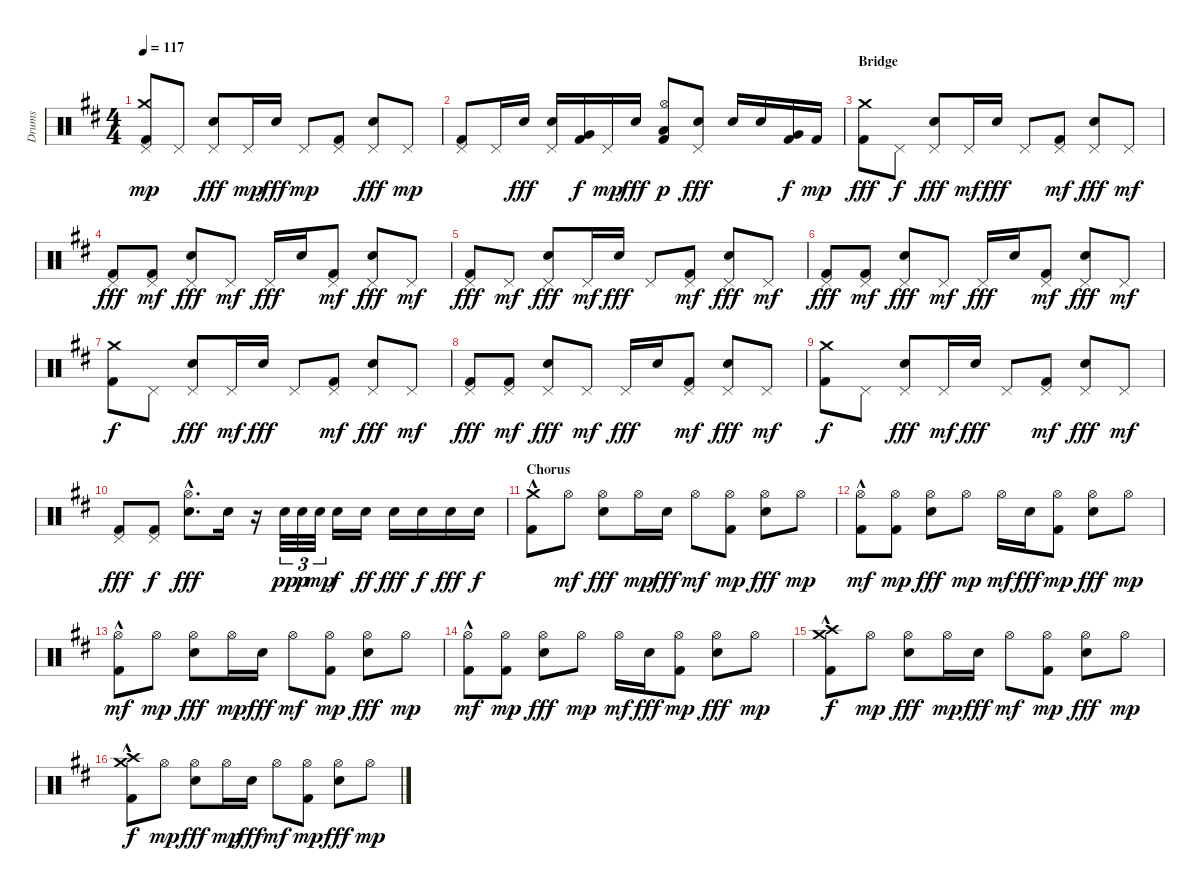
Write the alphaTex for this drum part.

\track ("Drums" "Drums") {instrument percussion}
\staff {score}
\articulation defaults
\ts (4 4)
\tempo 117
\clef neutral
\ks d
("Pedal Hi-Hat (hit)" "Crash medium (hit)" "Kick (hit) 2").8{dy mp} "Pedal Hi-Hat (hit)".8 ("Pedal Hi-Hat (hit)" "Electric Snare (hit)").8{dy fff} "Pedal Hi-Hat (hit)".16{dy mp} "Electric Snare (hit)".16{dy fff} "Pedal Hi-Hat (hit)".8{dy mp} ("Pedal Hi-Hat (hit)" "Kick (hit) 2").8 ("Pedal Hi-Hat (hit)" "Electric Snare (hit)").8{dy fff} "Pedal Hi-Hat (hit)".8{dy mp} |
("Pedal Hi-Hat (hit)" "Kick (hit) 2").8 "Pedal Hi-Hat (hit)".16 "Electric Snare (hit)".16{dy fff} ("Pedal Hi-Hat (hit)" "Electric Snare (hit)").16 ("Kick (hit) 2" "Very Low Tom (hit)").16{dy f} "Pedal Hi-Hat (hit)".16{dy mp} "Electric Snare (hit)".16{dy fff} ("Hi-Hat (open)" "Kick (hit) 2" "Low Floor Tom (hit)").8{dy p} ("Pedal Hi-Hat (hit)" "Electric Snare (hit)").8{dy fff} "Electric Snare (hit)".16 "Electric Snare (hit)".16 ("Kick (hit) 2" "Very Low Tom (hit)").16{dy f} "Kick (hit) 2".16{dy mp} |
\section ("" "Bridge")
("Crash medium (hit)" "Kick (hit) 2").8{dy fff} "Pedal Hi-Hat (hit)".8{dy f} ("Pedal Hi-Hat (hit)" "Electric Snare (hit)").8{dy fff} "Pedal Hi-Hat (hit)".16{dy mf} "Electric Snare (hit)".16{dy fff} "Pedal Hi-Hat (hit)".8 ("Pedal Hi-Hat (hit)" "Kick (hit) 2").8{dy mf} ("Pedal Hi-Hat (hit)" "Electric Snare (hit)").8{dy fff} "Pedal Hi-Hat (hit)".8{dy mf} |
("Pedal Hi-Hat (hit)" "Kick (hit) 2").8{dy fff} ("Pedal Hi-Hat (hit)" "Kick (hit) 2").8{dy mf} ("Pedal Hi-Hat (hit)" "Electric Snare (hit)").8{dy fff} "Pedal Hi-Hat (hit)".8{dy mf} "Pedal Hi-Hat (hit)".16{dy fff} "Electric Snare (hit)".16 ("Pedal Hi-Hat (hit)" "Kick (hit) 2").8{dy mf} ("Pedal Hi-Hat (hit)" "Electric Snare (hit)").8{dy fff} "Pedal Hi-Hat (hit)".8{dy mf} |
("Pedal Hi-Hat (hit)" "Kick (hit) 2").8{dy fff} "Pedal Hi-Hat (hit)".8{dy mf} ("Pedal Hi-Hat (hit)" "Electric Snare (hit)").8{dy fff} "Pedal Hi-Hat (hit)".16{dy mf} "Electric Snare (hit)".16{dy fff} "Pedal Hi-Hat (hit)".8 ("Pedal Hi-Hat (hit)" "Kick (hit) 2").8{dy mf} ("Pedal Hi-Hat (hit)" "Electric Snare (hit)").8{dy fff} "Pedal Hi-Hat (hit)".8{dy mf} |
("Pedal Hi-Hat (hit)" "Kick (hit) 2").8{dy fff} ("Pedal Hi-Hat (hit)" "Kick (hit) 2").8{dy mf} ("Pedal Hi-Hat (hit)" "Electric Snare (hit)").8{dy fff} "Pedal Hi-Hat (hit)".8{dy mf} "Pedal Hi-Hat (hit)".16{dy fff} "Electric Snare (hit)".16 ("Pedal Hi-Hat (hit)" "Kick (hit) 2").8{dy mf} ("Pedal Hi-Hat (hit)" "Electric Snare (hit)").8{dy fff} "Pedal Hi-Hat (hit)".8{dy mf} |
("Crash medium (hit)" "Kick (hit) 2").8{dy f} "Pedal Hi-Hat (hit)".8 ("Pedal Hi-Hat (hit)" "Electric Snare (hit)").8{dy fff} "Pedal Hi-Hat (hit)".16{dy mf} "Electric Snare (hit)".16{dy fff} "Pedal Hi-Hat (hit)".8 ("Pedal Hi-Hat (hit)" "Kick (hit) 2").8{dy mf} ("Pedal Hi-Hat (hit)" "Electric Snare (hit)").8{dy fff} "Pedal Hi-Hat (hit)".8{dy mf} |
("Pedal Hi-Hat (hit)" "Kick (hit) 2").8{dy fff} ("Pedal Hi-Hat (hit)" "Kick (hit) 2").8{dy mf} ("Pedal Hi-Hat (hit)" "Electric Snare (hit)").8{dy fff} "Pedal Hi-Hat (hit)".8{dy mf} "Pedal Hi-Hat (hit)".16{dy fff} "Electric Snare (hit)".16 ("Pedal Hi-Hat (hit)" "Kick (hit) 2").8{dy mf} ("Pedal Hi-Hat (hit)" "Electric Snare (hit)").8{dy fff} "Pedal Hi-Hat (hit)".8{dy mf} |
("Crash medium (hit)" "Kick (hit) 2").8{dy f} "Pedal Hi-Hat (hit)".8 ("Pedal Hi-Hat (hit)" "Electric Snare (hit)").8{dy fff} "Pedal Hi-Hat (hit)".16{dy mf} "Electric Snare (hit)".16{dy fff} "Pedal Hi-Hat (hit)".8 ("Pedal Hi-Hat (hit)" "Kick (hit) 2").8{dy mf} ("Pedal Hi-Hat (hit)" "Electric Snare (hit)").8{dy fff} "Pedal Hi-Hat (hit)".8{dy mf} |
("Pedal Hi-Hat (hit)" "Kick (hit) 2").8{dy fff} ("Pedal Hi-Hat (hit)" "Kick (hit) 2").8{dy f} ("Hi-Hat (open)"{hac} "Electric Snare (hit)"{hac}).8{d dy fff} "Electric Snare (hit)".16 r.16 "Electric Snare (hit)".32{tu (3 2) dy pp} "Electric Snare (hit)".32{tu (3 2) dy p} "Electric Snare (hit)".32{tu (3 2) dy mp} "Electric Snare (hit)".16{dy f} "Electric Snare (hit)".16{dy ff} "Electric Snare (hit)".16{dy fff} "Electric Snare (hit)".16{dy f} "Electric Snare (hit)".16{dy fff} "Electric Snare (hit)".16{dy f} |
\section ("" "Chorus")
("Crash medium (hit)" "Kick (hit) 2"{hac}).8 "Hi-Hat (open)".8{dy mf} ("Hi-Hat (open)" "Electric Snare (hit)").8{dy fff} "Hi-Hat (open)".16{dy mp} "Electric Snare (hit)".16{dy fff} "Hi-Hat (open)".8{dy mf} ("Hi-Hat (open)" "Kick (hit) 2").8{dy mp} ("Hi-Hat (open)" "Electric Snare (hit)").8{dy fff} "Hi-Hat (open)".8{dy mp} |
("Hi-Hat (open)" "Kick (hit) 2"{hac}).8{dy mf} ("Hi-Hat (open)" "Kick (hit) 2").8{dy mp} ("Hi-Hat (open)" "Electric Snare (hit)").8{dy fff} "Hi-Hat (open)".8{dy mp} "Hi-Hat (open)".16{dy mf} "Electric Snare (hit)".16{dy fff} ("Hi-Hat (open)" "Kick (hit) 2").8{dy mp} ("Hi-Hat (open)" "Electric Snare (hit)").8{dy fff} "Hi-Hat (open)".8{dy mp} |
("Hi-Hat (open)" "Kick (hit) 2"{hac}).8{dy mf} "Hi-Hat (open)".8{dy mp} ("Hi-Hat (open)" "Electric Snare (hit)").8{dy fff} "Hi-Hat (open)".16{dy mp} "Electric Snare (hit)".16{dy fff} "Hi-Hat (open)".8{dy mf} ("Hi-Hat (open)" "Kick (hit) 2").8{dy mp} ("Hi-Hat (open)" "Electric Snare (hit)").8{dy fff} "Hi-Hat (open)".8{dy mp} |
("Hi-Hat (open)" "Kick (hit) 2"{hac}).8{dy mf} ("Hi-Hat (open)" "Kick (hit) 2").8{dy mp} ("Hi-Hat (open)" "Electric Snare (hit)").8{dy fff} "Hi-Hat (open)".8{dy mp} "Hi-Hat (open)".16{dy mf} "Electric Snare (hit)".16{dy fff} ("Hi-Hat (open)" "Kick (hit) 2").8{dy mp} ("Hi-Hat (open)" "Electric Snare (hit)").8{dy fff} "Hi-Hat (open)".8{dy mp} |
("Crash medium (hit)" "Crash high (hit)" "Kick (hit) 2"{hac}).8{dy f} "Hi-Hat (open)".8{dy mp} ("Hi-Hat (open)" "Electric Snare (hit)").8{dy fff} "Hi-Hat (open)".16{dy mp} "Electric Snare (hit)".16{dy fff} "Hi-Hat (open)".8{dy mf} ("Hi-Hat (open)" "Kick (hit) 2").8{dy mp} ("Hi-Hat (open)" "Electric Snare (hit)").8{dy fff} "Hi-Hat (open)".8{dy mp} |
("Crash high (hit)" "Crash medium (hit)" "Kick (hit) 2"{hac}).8{dy f} "Hi-Hat (open)".8{dy mp} ("Hi-Hat (open)" "Electric Snare (hit)").8{dy fff} "Hi-Hat (open)".16{dy mp} "Electric Snare (hit)".16{dy fff} "Hi-Hat (open)".8{dy mf} ("Hi-Hat (open)" "Kick (hit) 2").8{dy mp} ("Hi-Hat (open)" "Electric Snare (hit)").8{dy fff} "Hi-Hat (open)".8{dy mp}
